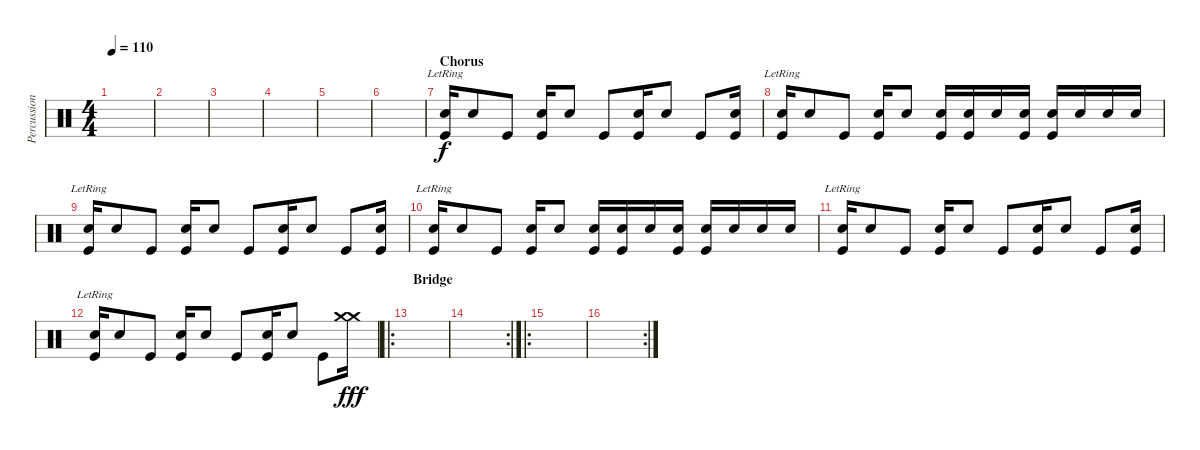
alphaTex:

\track ("Percussion" "Percussion") {instrument percussion}
\staff {score}
\articulation defaults
\ts (4 4)
\tempo 110
\clef neutral
\ks c
|
|
|
|
|
|
\section ("" "Chorus")
("Electric Snare (hit)" "Kick (hit)"{lr}).16{dy f} "Electric Snare (hit)".8 "Kick (hit)".8 ("Electric Snare (hit)" "Kick (hit)").16 "Electric Snare (hit)".8 "Kick (hit)".8 ("Electric Snare (hit)" "Kick (hit)").16 "Electric Snare (hit)".8 "Kick (hit)".8 ("Electric Snare (hit)" "Kick (hit)").16 |
("Electric Snare (hit)" "Kick (hit)"{lr}).16 "Electric Snare (hit)".8 "Kick (hit)".8 ("Electric Snare (hit)" "Kick (hit)").16 "Electric Snare (hit)".8 ("Electric Snare (hit)" "Kick (hit)").16 ("Electric Snare (hit)" "Kick (hit)").16 "Electric Snare (hit)".16 ("Electric Snare (hit)" "Kick (hit)").16 ("Electric Snare (hit)" "Kick (hit)").16 "Electric Snare (hit)".16 "Electric Snare (hit)".16 "Electric Snare (hit)".16 |
("Electric Snare (hit)" "Kick (hit)"{lr}).16 "Electric Snare (hit)".8 "Kick (hit)".8 ("Electric Snare (hit)" "Kick (hit)").16 "Electric Snare (hit)".8 "Kick (hit)".8 ("Electric Snare (hit)" "Kick (hit)").16 "Electric Snare (hit)".8 "Kick (hit)".8 ("Electric Snare (hit)" "Kick (hit)").16 |
("Electric Snare (hit)" "Kick (hit)"{lr}).16 "Electric Snare (hit)".8 "Kick (hit)".8 ("Electric Snare (hit)" "Kick (hit)").16 "Electric Snare (hit)".8 ("Electric Snare (hit)" "Kick (hit)").16 ("Electric Snare (hit)" "Kick (hit)").16 "Electric Snare (hit)".16 ("Electric Snare (hit)" "Kick (hit)").16 ("Electric Snare (hit)" "Kick (hit)").16 "Electric Snare (hit)".16 "Electric Snare (hit)".16 "Electric Snare (hit)".16 |
("Electric Snare (hit)" "Kick (hit)"{lr}).16 "Electric Snare (hit)".8 "Kick (hit)".8 ("Electric Snare (hit)" "Kick (hit)").16 "Electric Snare (hit)".8 "Kick (hit)".8 ("Electric Snare (hit)" "Kick (hit)").16 "Electric Snare (hit)".8 "Kick (hit)".8 ("Electric Snare (hit)" "Kick (hit)").16 |
("Electric Snare (hit)" "Kick (hit)"{lr}).16 "Electric Snare (hit)".8 "Kick (hit)".8 ("Electric Snare (hit)" "Kick (hit)").16 "Electric Snare (hit)".8 "Kick (hit)".8 ("Electric Snare (hit)" "Kick (hit)").16 "Electric Snare (hit)".8 "Kick (hit)".8 ("Crash medium (hit)" "Crash medium (hit)").16{dy fff} |
\ro
\section ("" "Bridge")
|
\rc 2
|
\ro
|
\rc 2
